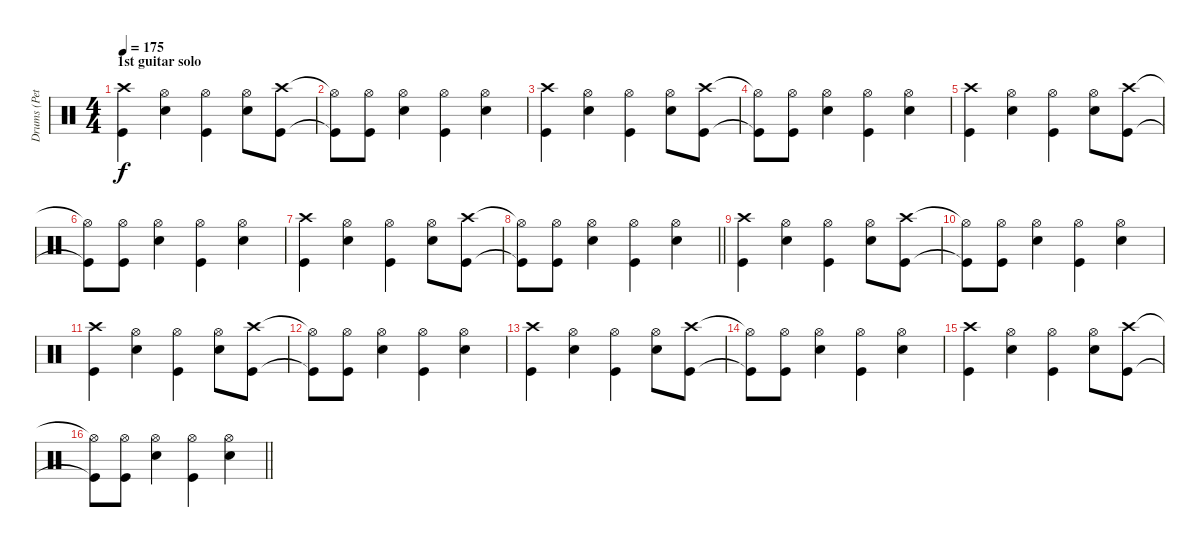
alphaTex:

\track ("Drums (Peter Jensen)" "Drums (Pet") {instrument percussion}
\staff {score}
\articulation defaults
\ts (4 4)
\section ("" "1st guitar solo")
\tempo 175
\clef neutral
\ks c
("Crash high (hit)" "Kick (hit)").4{dy f} ("Hi-Hat (open)" "Snare (hit) 2").4 ("Hi-Hat (open)" "Kick (hit)").4 ("Hi-Hat (open)" "Snare (hit) 2").8 ("Crash high (hit)" "Kick (hit)").8 |
("Hi-Hat (open)"{t} "Kick (hit)"{t}).8 ("Hi-Hat (open)" "Kick (hit)").8 ("Hi-Hat (open)" "Snare (hit) 2").4 ("Hi-Hat (open)" "Kick (hit)").4 ("Hi-Hat (open)" "Snare (hit) 2").4 |
("Crash high (hit)" "Kick (hit)").4 ("Hi-Hat (open)" "Snare (hit) 2").4 ("Hi-Hat (open)" "Kick (hit)").4 ("Hi-Hat (open)" "Snare (hit) 2").8 ("Crash high (hit)" "Kick (hit)").8 |
("Hi-Hat (open)"{t} "Kick (hit)"{t}).8 ("Hi-Hat (open)" "Kick (hit)").8 ("Hi-Hat (open)" "Snare (hit) 2").4 ("Hi-Hat (open)" "Kick (hit)").4 ("Hi-Hat (open)" "Snare (hit) 2").4 |
("Crash high (hit)" "Kick (hit)").4 ("Hi-Hat (open)" "Snare (hit) 2").4 ("Hi-Hat (open)" "Kick (hit)").4 ("Hi-Hat (open)" "Snare (hit) 2").8 ("Crash high (hit)" "Kick (hit)").8 |
("Hi-Hat (open)"{t} "Kick (hit)"{t}).8 ("Hi-Hat (open)" "Kick (hit)").8 ("Hi-Hat (open)" "Snare (hit) 2").4 ("Hi-Hat (open)" "Kick (hit)").4 ("Hi-Hat (open)" "Snare (hit) 2").4 |
("Crash high (hit)" "Kick (hit)").4 ("Hi-Hat (open)" "Snare (hit) 2").4 ("Hi-Hat (open)" "Kick (hit)").4 ("Hi-Hat (open)" "Snare (hit) 2").8 ("Crash high (hit)" "Kick (hit)").8 |
\barLineRight lightlight
("Hi-Hat (open)"{t} "Kick (hit)"{t}).8 ("Hi-Hat (open)" "Kick (hit)").8 ("Hi-Hat (open)" "Snare (hit) 2").4 ("Hi-Hat (open)" "Kick (hit)").4 ("Hi-Hat (open)" "Snare (hit) 2").4 |
("Crash high (hit)" "Kick (hit)").4 ("Hi-Hat (open)" "Snare (hit) 2").4 ("Hi-Hat (open)" "Kick (hit)").4 ("Hi-Hat (open)" "Snare (hit) 2").8 ("Crash high (hit)" "Kick (hit)").8 |
("Hi-Hat (open)"{t} "Kick (hit)"{t}).8 ("Hi-Hat (open)" "Kick (hit)").8 ("Hi-Hat (open)" "Snare (hit) 2").4 ("Hi-Hat (open)" "Kick (hit)").4 ("Hi-Hat (open)" "Snare (hit) 2").4 |
("Crash high (hit)" "Kick (hit)").4 ("Hi-Hat (open)" "Snare (hit) 2").4 ("Hi-Hat (open)" "Kick (hit)").4 ("Hi-Hat (open)" "Snare (hit) 2").8 ("Crash high (hit)" "Kick (hit)").8 |
("Hi-Hat (open)"{t} "Kick (hit)"{t}).8 ("Hi-Hat (open)" "Kick (hit)").8 ("Hi-Hat (open)" "Snare (hit) 2").4 ("Hi-Hat (open)" "Kick (hit)").4 ("Hi-Hat (open)" "Snare (hit) 2").4 |
("Crash high (hit)" "Kick (hit)").4 ("Hi-Hat (open)" "Snare (hit) 2").4 ("Hi-Hat (open)" "Kick (hit)").4 ("Hi-Hat (open)" "Snare (hit) 2").8 ("Crash high (hit)" "Kick (hit)").8 |
("Hi-Hat (open)"{t} "Kick (hit)"{t}).8 ("Hi-Hat (open)" "Kick (hit)").8 ("Hi-Hat (open)" "Snare (hit) 2").4 ("Hi-Hat (open)" "Kick (hit)").4 ("Hi-Hat (open)" "Snare (hit) 2").4 |
("Crash high (hit)" "Kick (hit)").4 ("Hi-Hat (open)" "Snare (hit) 2").4 ("Hi-Hat (open)" "Kick (hit)").4 ("Hi-Hat (open)" "Snare (hit) 2").8 ("Crash high (hit)" "Kick (hit)").8 |
\barLineRight lightlight
("Hi-Hat (open)"{t} "Kick (hit)"{t}).8 ("Hi-Hat (open)" "Kick (hit)").8 ("Hi-Hat (open)" "Snare (hit) 2").4 ("Hi-Hat (open)" "Kick (hit)").4 ("Hi-Hat (open)" "Snare (hit) 2").4
